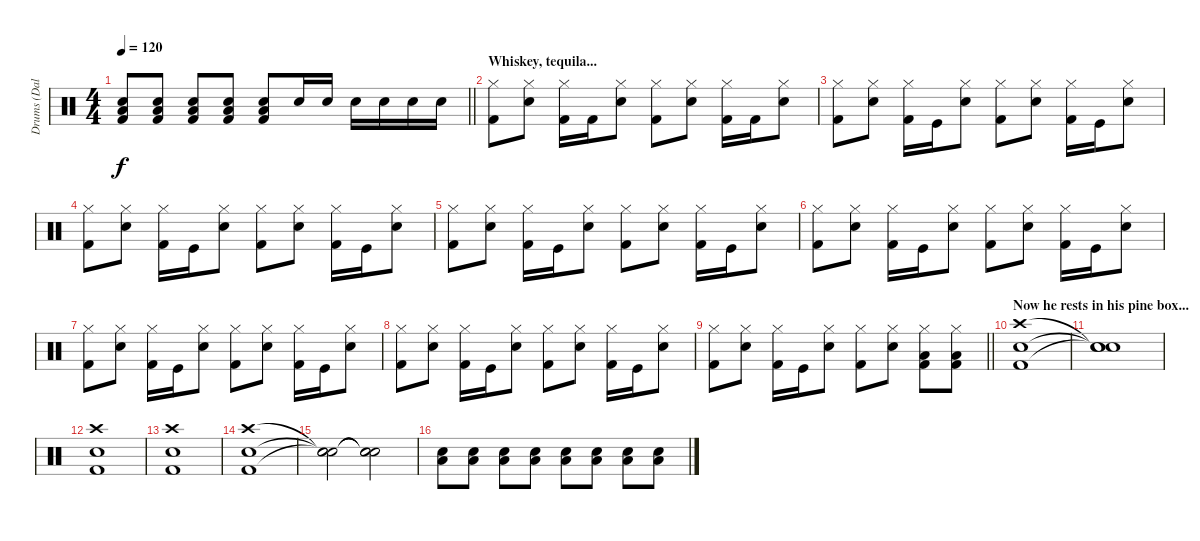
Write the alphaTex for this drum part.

\track ("Drums (Dalton Black)" "Drums (Dal") {instrument percussion}
\staff {score}
\articulation defaults
\ts (4 4)
\tempo 120
\clef neutral
\barLineRight lightlight
\ks c
("Low Tom (hit)" "Electric Snare (hit)" "Kick (hit) 2").8{dy f} ("Low Tom (hit)" "Electric Snare (hit)" "Kick (hit) 2").8 ("Low Tom (hit)" "Electric Snare (hit)" "Kick (hit) 2").8 ("Low Tom (hit)" "Electric Snare (hit)" "Kick (hit) 2").8 ("Low Tom (hit)" "Electric Snare (hit)" "Kick (hit) 2").8 "Electric Snare (hit)".16 "Electric Snare (hit)".16 "Electric Snare (hit)".16 "Electric Snare (hit)".16 "Electric Snare (hit)".16 "Electric Snare (hit)".16 |
\section ("" "Whiskey, tequila...")
("Hi-Hat (closed)" "Kick (hit) 2").8 ("Hi-Hat (closed)" "Electric Snare (hit)").8 ("Hi-Hat (closed)" "Kick (hit) 2").16 "Kick (hit) 2".16 ("Hi-Hat (closed)" "Electric Snare (hit)").8 ("Hi-Hat (closed)" "Kick (hit) 2").8 ("Hi-Hat (closed)" "Electric Snare (hit)").8 ("Hi-Hat (closed)" "Kick (hit) 2").16 "Kick (hit) 2".16 ("Hi-Hat (closed)" "Electric Snare (hit)").8 |
("Hi-Hat (closed)" "Kick (hit) 2").8 ("Hi-Hat (closed)" "Electric Snare (hit)").8 ("Hi-Hat (closed)" "Kick (hit) 2").16 "Kick (hit)".16 ("Hi-Hat (closed)" "Electric Snare (hit)").8 ("Hi-Hat (closed)" "Kick (hit) 2").8 ("Hi-Hat (closed)" "Electric Snare (hit)").8 ("Hi-Hat (closed)" "Kick (hit) 2").16 "Kick (hit)".16 ("Hi-Hat (closed)" "Electric Snare (hit)").8 |
("Hi-Hat (closed)" "Kick (hit) 2").8 ("Hi-Hat (closed)" "Electric Snare (hit)").8 ("Hi-Hat (closed)" "Kick (hit) 2").16 "Kick (hit)".16 ("Hi-Hat (closed)" "Electric Snare (hit)").8 ("Hi-Hat (closed)" "Kick (hit) 2").8 ("Hi-Hat (closed)" "Electric Snare (hit)").8 ("Hi-Hat (closed)" "Kick (hit) 2").16 "Kick (hit)".16 ("Hi-Hat (closed)" "Electric Snare (hit)").8 |
("Hi-Hat (closed)" "Kick (hit) 2").8 ("Hi-Hat (closed)" "Electric Snare (hit)").8 ("Hi-Hat (closed)" "Kick (hit) 2").16 "Kick (hit)".16 ("Hi-Hat (closed)" "Electric Snare (hit)").8 ("Hi-Hat (closed)" "Kick (hit) 2").8 ("Hi-Hat (closed)" "Electric Snare (hit)").8 ("Hi-Hat (closed)" "Kick (hit) 2").16 "Kick (hit)".16 ("Hi-Hat (closed)" "Electric Snare (hit)").8 |
("Hi-Hat (closed)" "Kick (hit) 2").8 ("Hi-Hat (closed)" "Electric Snare (hit)").8 ("Hi-Hat (closed)" "Kick (hit) 2").16 "Kick (hit)".16 ("Hi-Hat (closed)" "Electric Snare (hit)").8 ("Hi-Hat (closed)" "Kick (hit) 2").8 ("Hi-Hat (closed)" "Electric Snare (hit)").8 ("Hi-Hat (closed)" "Kick (hit) 2").16 "Kick (hit)".16 ("Hi-Hat (closed)" "Electric Snare (hit)").8 |
("Hi-Hat (closed)" "Kick (hit) 2").8 ("Hi-Hat (closed)" "Electric Snare (hit)").8 ("Hi-Hat (closed)" "Kick (hit) 2").16 "Kick (hit)".16 ("Hi-Hat (closed)" "Electric Snare (hit)").8 ("Hi-Hat (closed)" "Kick (hit) 2").8 ("Hi-Hat (closed)" "Electric Snare (hit)").8 ("Hi-Hat (closed)" "Kick (hit) 2").16 "Kick (hit)".16 ("Hi-Hat (closed)" "Electric Snare (hit)").8 |
("Hi-Hat (closed)" "Kick (hit) 2").8 ("Hi-Hat (closed)" "Electric Snare (hit)").8 ("Hi-Hat (closed)" "Kick (hit) 2").16 "Kick (hit)".16 ("Hi-Hat (closed)" "Electric Snare (hit)").8 ("Hi-Hat (closed)" "Kick (hit) 2").8 ("Hi-Hat (closed)" "Electric Snare (hit)").8 ("Hi-Hat (closed)" "Kick (hit) 2").16 "Kick (hit)".16 ("Hi-Hat (closed)" "Electric Snare (hit)").8 |
\barLineRight lightlight
("Hi-Hat (closed)" "Kick (hit) 2").8 ("Hi-Hat (closed)" "Electric Snare (hit)").8 ("Hi-Hat (closed)" "Kick (hit) 2").16 "Kick (hit)".16 ("Hi-Hat (closed)" "Electric Snare (hit)").8 ("Hi-Hat (closed)" "Kick (hit) 2").8 ("Hi-Hat (closed)" "Electric Snare (hit)").8 ("Hi-Hat (closed)" "Low Tom (hit)" "Kick (hit) 2").8 ("Hi-Hat (closed)" "Low Tom (hit)" "Kick (hit) 2").8 |
\section ("" "Now he rests in his pine box...")
("Crash high (hit)" "Electric Snare (hit)" "Kick (hit) 2").1 |
("Snare (hit)"{t} "Snare (hit)"{t} "Snare (hit)"{t}).1 |
("Crash high (hit)" "Electric Snare (hit)" "Kick (hit) 2").1 |
("Crash high (hit)" "Electric Snare (hit)" "Kick (hit) 2").1 |
("Crash high (hit)" "Electric Snare (hit)" "Kick (hit) 2").1 |
("Snare (hit)"{t} "Snare (hit)"{t} "Snare (hit)"{t}).2 ("Snare (hit)"{t} "Snare (hit)"{t} "Snare (hit)"{t}).2{volume 6} |
("Low Tom (hit)" "Electric Snare (hit)").8{volume 13} ("Low Tom (hit)" "Electric Snare (hit)").8 ("Low Tom (hit)" "Electric Snare (hit)").8 ("Low Tom (hit)" "Electric Snare (hit)").8 ("Low Tom (hit)" "Electric Snare (hit)").8 ("Low Tom (hit)" "Electric Snare (hit)").8 ("Low Tom (hit)" "Electric Snare (hit)").8 ("Low Tom (hit)" "Electric Snare (hit)").8
